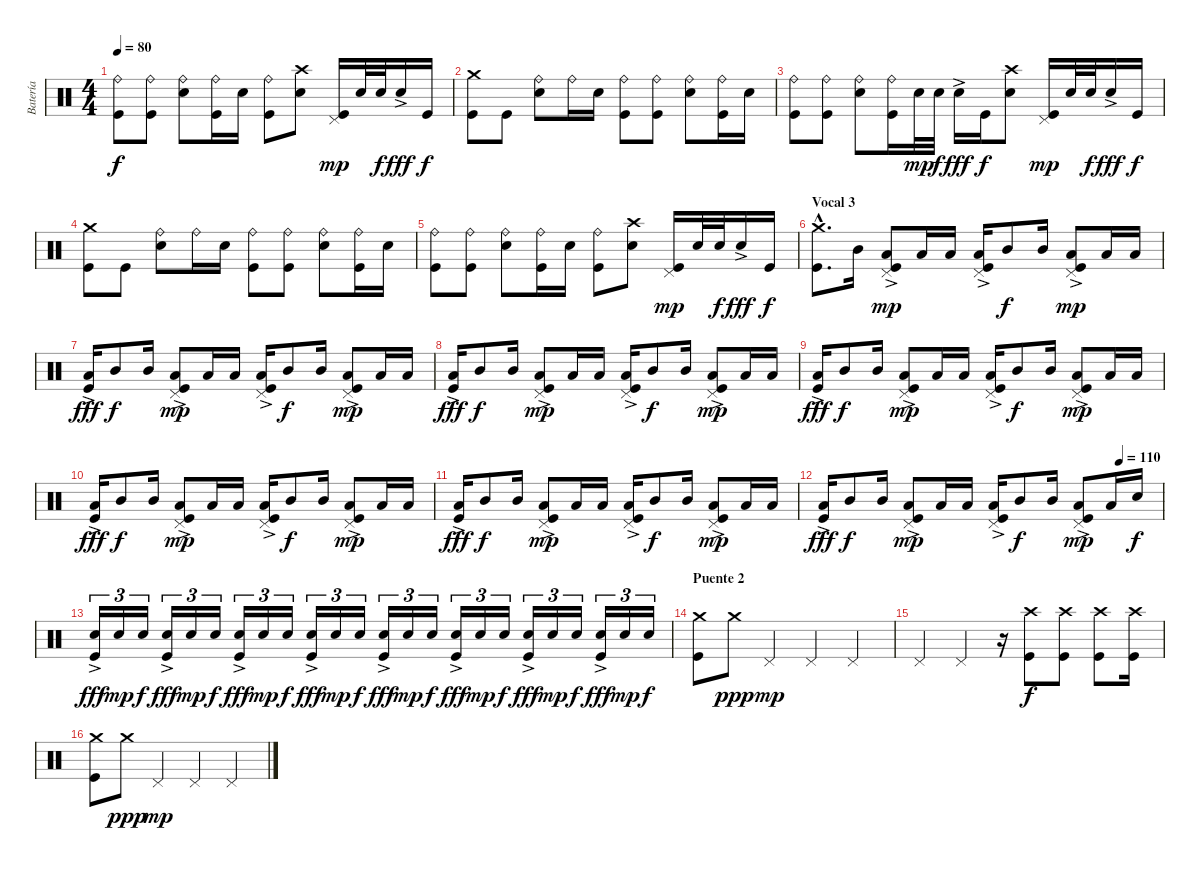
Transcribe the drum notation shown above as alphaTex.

\track ("Batería" "Batería") {instrument percussion}
\staff {score}
\articulation defaults
\ts (4 4)
\tempo 80
\clef neutral
\ks c
("Kick (hit)" "Ride (bell)").8{dy f} ("Kick (hit)" "Ride (bell)").8 ("Electric Snare (hit)" "Ride (bell)").8 ("Kick (hit)" "Ride (bell)").16 "Electric Snare (hit)".16 ("Kick (hit)" "Ride (bell)").8 ("Electric Snare (hit)" "Crash high (hit)").8 ("Kick (hit)" "Pedal Hi-Hat (hit)").16{dy mp} "Electric Snare (hit)".32 "Electric Snare (hit)".32{dy f} "Electric Snare (hit)"{ac}.16{dy fff} "Kick (hit)".16{dy f} |
("Kick (hit)" "Crash medium (hit)").8 "Kick (hit)".8 ("Electric Snare (hit)" "Ride (bell)").8 "Ride (bell)".16 "Electric Snare (hit)".16 ("Kick (hit)" "Ride (bell)").8 ("Kick (hit)" "Ride (bell)").8 ("Electric Snare (hit)" "Ride (bell)").8 ("Kick (hit)" "Ride (bell)").16 "Electric Snare (hit)".16 |
("Kick (hit)" "Ride (bell)").8 ("Kick (hit)" "Ride (bell)").8 ("Electric Snare (hit)" "Ride (bell)").8 ("Kick (hit)" "Ride (bell)").16 "Electric Snare (hit)".32{dy mp} "Electric Snare (hit)".32{dy f} "Electric Snare (hit)"{ac}.16{dy fff} "Kick (hit)".16{dy f} ("Electric Snare (hit)" "Crash high (hit)").8 ("Kick (hit)" "Pedal Hi-Hat (hit)").16{dy mp} "Electric Snare (hit)".32 "Electric Snare (hit)".32{dy f} "Electric Snare (hit)"{ac}.16{dy fff} "Kick (hit)".16{dy f} |
("Kick (hit)" "Crash medium (hit)").8 "Kick (hit)".8 ("Electric Snare (hit)" "Ride (bell)").8 "Ride (bell)".16 "Electric Snare (hit)".16 ("Kick (hit)" "Ride (bell)").8 ("Kick (hit)" "Ride (bell)").8 ("Electric Snare (hit)" "Ride (bell)").8 ("Kick (hit)" "Ride (bell)").16 "Electric Snare (hit)".16 |
("Kick (hit)" "Ride (bell)").8 ("Kick (hit)" "Ride (bell)").8 ("Electric Snare (hit)" "Ride (bell)").8 ("Kick (hit)" "Ride (bell)").16 "Electric Snare (hit)".16 ("Kick (hit)" "Ride (bell)").8 ("Electric Snare (hit)" "Crash high (hit)").8 ("Kick (hit)" "Pedal Hi-Hat (hit)").16{dy mp} "Electric Snare (hit)".32 "Electric Snare (hit)".32{dy f} "Electric Snare (hit)"{ac}.16{dy fff} "Kick (hit)".16{dy f} |
\section ("" "Vocal 3")
("Kick (hit)"{hac} "Crash medium (hit)"{hac}).8{d} "Mid Tom (hit)".16 ("Kick (hit)" "Low Tom (hit)"{ac} "Pedal Hi-Hat (hit)").8{dy mp} "Low Tom (hit)".16 "Low Tom (hit)".16 ("Kick (hit)" "Low Tom (hit)"{ac} "Pedal Hi-Hat (hit)").16 "Mid Tom (hit)".8{dy f} "Mid Tom (hit)".16 ("Kick (hit)" "Low Tom (hit)"{ac} "Pedal Hi-Hat (hit)").8{dy mp} "Low Tom (hit)".16 "Low Tom (hit)".16 |
("Kick (hit)" "Low Tom (hit)"{ac}).16{dy fff} "Mid Tom (hit)".8{dy f} "Mid Tom (hit)".16 ("Kick (hit)" "Low Tom (hit)"{ac} "Pedal Hi-Hat (hit)").8{dy mp} "Low Tom (hit)".16 "Low Tom (hit)".16 ("Kick (hit)" "Low Tom (hit)"{ac} "Pedal Hi-Hat (hit)").16 "Mid Tom (hit)".8{dy f} "Mid Tom (hit)".16 ("Kick (hit)" "Low Tom (hit)"{ac} "Pedal Hi-Hat (hit)").8{dy mp} "Low Tom (hit)".16 "Low Tom (hit)".16 |
("Kick (hit)" "Low Tom (hit)"{ac}).16{dy fff} "Mid Tom (hit)".8{dy f} "Mid Tom (hit)".16 ("Kick (hit)" "Low Tom (hit)"{ac} "Pedal Hi-Hat (hit)").8{dy mp} "Low Tom (hit)".16 "Low Tom (hit)".16 ("Kick (hit)" "Low Tom (hit)"{ac} "Pedal Hi-Hat (hit)").16 "Mid Tom (hit)".8{dy f} "Mid Tom (hit)".16 ("Kick (hit)" "Low Tom (hit)"{ac} "Pedal Hi-Hat (hit)").8{dy mp} "Low Tom (hit)".16 "Low Tom (hit)".16 |
("Kick (hit)" "Low Tom (hit)"{ac}).16{dy fff} "Mid Tom (hit)".8{dy f} "Mid Tom (hit)".16 ("Kick (hit)" "Low Tom (hit)"{ac} "Pedal Hi-Hat (hit)").8{dy mp} "Low Tom (hit)".16 "Low Tom (hit)".16 ("Kick (hit)" "Low Tom (hit)"{ac} "Pedal Hi-Hat (hit)").16 "Mid Tom (hit)".8{dy f} "Mid Tom (hit)".16 ("Kick (hit)" "Low Tom (hit)"{ac} "Pedal Hi-Hat (hit)").8{dy mp} "Low Tom (hit)".16 "Low Tom (hit)".16 |
("Kick (hit)" "Low Tom (hit)"{ac}).16{dy fff} "Mid Tom (hit)".8{dy f} "Mid Tom (hit)".16 ("Kick (hit)" "Low Tom (hit)"{ac} "Pedal Hi-Hat (hit)").8{dy mp} "Low Tom (hit)".16 "Low Tom (hit)".16 ("Kick (hit)" "Low Tom (hit)"{ac} "Pedal Hi-Hat (hit)").16 "Mid Tom (hit)".8{dy f} "Mid Tom (hit)".16 ("Kick (hit)" "Low Tom (hit)"{ac} "Pedal Hi-Hat (hit)").8{dy mp} "Low Tom (hit)".16 "Low Tom (hit)".16 |
("Kick (hit)" "Low Tom (hit)"{ac}).16{dy fff} "Mid Tom (hit)".8{dy f} "Mid Tom (hit)".16 ("Kick (hit)" "Low Tom (hit)"{ac} "Pedal Hi-Hat (hit)").8{dy mp} "Low Tom (hit)".16 "Low Tom (hit)".16 ("Kick (hit)" "Low Tom (hit)"{ac} "Pedal Hi-Hat (hit)").16 "Mid Tom (hit)".8{dy f} "Mid Tom (hit)".16 ("Kick (hit)" "Low Tom (hit)"{ac} "Pedal Hi-Hat (hit)").8{dy mp} "Low Tom (hit)".16 "Low Tom (hit)".16 |
\tempo (110 0.875)
("Kick (hit)" "Low Tom (hit)"{ac}).16{dy fff} "Mid Tom (hit)".8{dy f} "Mid Tom (hit)".16 ("Kick (hit)" "Low Tom (hit)"{ac} "Pedal Hi-Hat (hit)").8{dy mp} "Low Tom (hit)".16 "Low Tom (hit)".16 ("Kick (hit)" "Low Tom (hit)"{ac} "Pedal Hi-Hat (hit)").16 "Mid Tom (hit)".8{dy f} "Mid Tom (hit)".16 ("Kick (hit)" "Low Tom (hit)"{ac} "Pedal Hi-Hat (hit)").8{dy mp} "Low Tom (hit)".16 "Electric Snare (hit)".16{dy f} |
("Kick (hit)" "Electric Snare (hit)"{ac}).16{tu (3 2) dy fff} "Electric Snare (hit)".16{tu (3 2) dy mp} "Electric Snare (hit)".16{tu (3 2) dy f} ("Kick (hit)" "Electric Snare (hit)"{ac}).16{tu (3 2) dy fff} "Electric Snare (hit)".16{tu (3 2) dy mp} "Electric Snare (hit)".16{tu (3 2) dy f} ("Kick (hit)" "Electric Snare (hit)"{ac}).16{tu (3 2) dy fff} "Electric Snare (hit)".16{tu (3 2) dy mp} "Electric Snare (hit)".16{tu (3 2) dy f} ("Kick (hit)" "Electric Snare (hit)"{ac}).16{tu (3 2) dy fff} "Electric Snare (hit)".16{tu (3 2) dy mp} "Electric Snare (hit)".16{tu (3 2) dy f} ("Kick (hit)" "Electric Snare (hit)"{ac}).16{tu (3 2) dy fff} "Electric Snare (hit)".16{tu (3 2) dy mp} "Electric Snare (hit)".16{tu (3 2) dy f} ("Kick (hit)" "Electric Snare (hit)"{ac}).16{tu (3 2) dy fff} "Electric Snare (hit)".16{tu (3 2) dy mp} "Electric Snare (hit)".16{tu (3 2) dy f} ("Kick (hit)" "Electric Snare (hit)"{ac}).16{tu (3 2) dy fff} "Electric Snare (hit)".16{tu (3 2) dy mp} "Electric Snare (hit)".16{tu (3 2) dy f} ("Kick (hit)" "Electric Snare (hit)"{ac}).16{tu (3 2) dy fff} "Electric Snare (hit)".16{tu (3 2) dy mp} "Electric Snare (hit)".16{tu (3 2) dy f} |
\section ("" "Puente 2")
("Kick (hit)" "Crash medium (hit)").8 "Crash medium (hit)".8{dy ppp} "Pedal Hi-Hat (hit)".4{dy mp} "Pedal Hi-Hat (hit)".4 "Pedal Hi-Hat (hit)".4 |
"Pedal Hi-Hat (hit)".4 "Pedal Hi-Hat (hit)".4 r.16 ("Kick (hit)" "Crash high (hit)").8{dy f} ("Kick (hit)" "Crash high (hit)").8 ("Kick (hit)" "Crash high (hit)").8 ("Kick (hit)" "Crash high (hit)").16 |
("Kick (hit)" "Crash medium (hit)").8 "Crash medium (hit)".8{dy ppp} "Pedal Hi-Hat (hit)".4{dy mp} "Pedal Hi-Hat (hit)".4 "Pedal Hi-Hat (hit)".4
